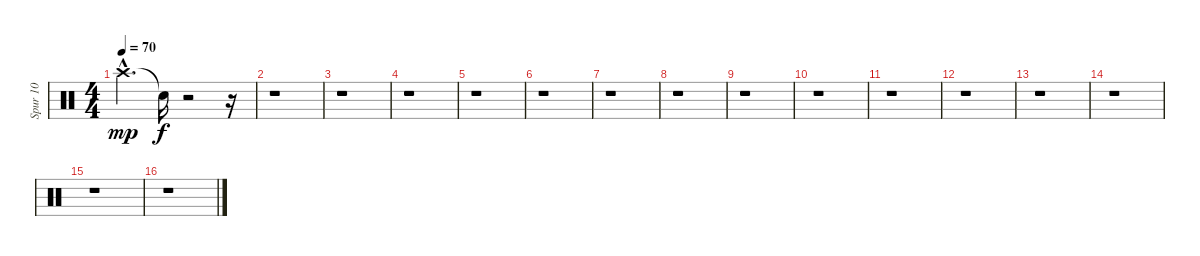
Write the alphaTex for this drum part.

\track ("Spur 10" "Spur 10") {instrument percussion}
\staff {score}
\articulation defaults
\ts (4 4)
\tempo 70
\clef neutral
\ks c "Crash high (hit)"{hac}.4{d dy mp} "Snare (hit)"{t}.16{dy f}
r.2 r.16 |
r.1 |
r.1 |
r.1 |
r.1 |
r.1 |
r.1 |
r.1 |
r.1 |
r.1 |
r.1 |
r.1 |
r.1 |
r.1 |
r.1 |
r.1
